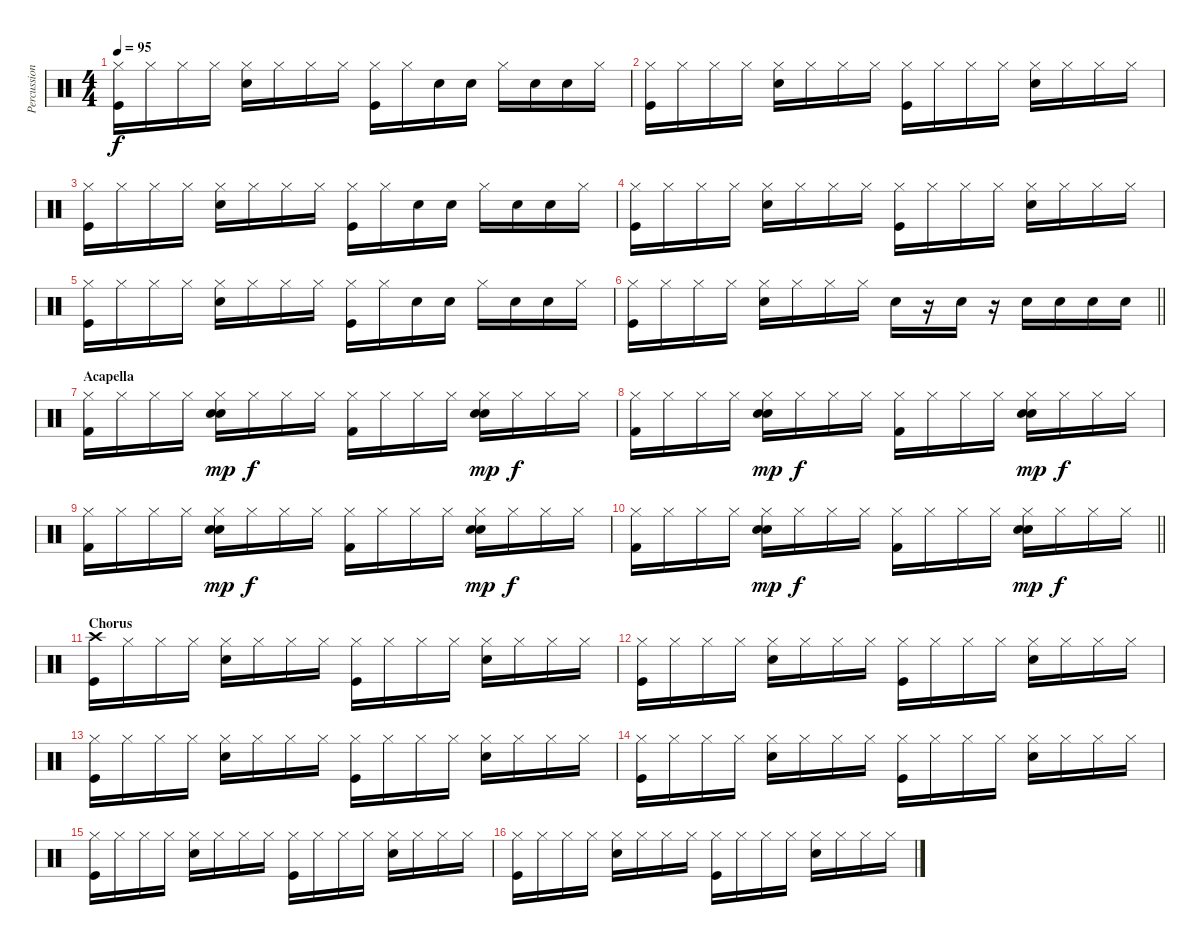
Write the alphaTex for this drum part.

\track ("Percussion" "Percussion") {instrument percussion}
\staff {score}
\articulation defaults
\ts (4 4)
\tempo 95
\clef neutral
\ks c
("Hi-Hat (closed)" "Kick (hit)").16{dy f} "Hi-Hat (closed)".16 "Hi-Hat (closed)".16 "Hi-Hat (closed)".16 ("Hi-Hat (closed)" "Snare (hit) 2").16 "Hi-Hat (closed)".16 "Hi-Hat (closed)".16 "Hi-Hat (closed)".16 ("Hi-Hat (closed)" "Kick (hit)").16 "Hi-Hat (closed)".16 "Snare (hit) 2".16 "Snare (hit) 2".16 "Hi-Hat (closed)".16 "Snare (hit) 2".16 "Snare (hit) 2".16 "Hi-Hat (closed)".16 |
("Hi-Hat (closed)" "Kick (hit)").16 "Hi-Hat (closed)".16 "Hi-Hat (closed)".16 "Hi-Hat (closed)".16 ("Hi-Hat (closed)" "Snare (hit) 2").16 "Hi-Hat (closed)".16 "Hi-Hat (closed)".16 "Hi-Hat (closed)".16 ("Hi-Hat (closed)" "Kick (hit)").16 "Hi-Hat (closed)".16 "Hi-Hat (closed)".16 "Hi-Hat (closed)".16 ("Hi-Hat (closed)" "Snare (hit) 2").16 "Hi-Hat (closed)".16 "Hi-Hat (closed)".16 "Hi-Hat (closed)".16 |
("Hi-Hat (closed)" "Kick (hit)").16 "Hi-Hat (closed)".16 "Hi-Hat (closed)".16 "Hi-Hat (closed)".16 ("Hi-Hat (closed)" "Snare (hit) 2").16 "Hi-Hat (closed)".16 "Hi-Hat (closed)".16 "Hi-Hat (closed)".16 ("Hi-Hat (closed)" "Kick (hit)").16 "Hi-Hat (closed)".16 "Snare (hit) 2".16 "Snare (hit) 2".16 "Hi-Hat (closed)".16 "Snare (hit) 2".16 "Snare (hit) 2".16 "Hi-Hat (closed)".16 |
("Hi-Hat (closed)" "Kick (hit)").16 "Hi-Hat (closed)".16 "Hi-Hat (closed)".16 "Hi-Hat (closed)".16 ("Hi-Hat (closed)" "Snare (hit) 2").16 "Hi-Hat (closed)".16 "Hi-Hat (closed)".16 "Hi-Hat (closed)".16 ("Hi-Hat (closed)" "Kick (hit)").16 "Hi-Hat (closed)".16 "Hi-Hat (closed)".16 "Hi-Hat (closed)".16 ("Hi-Hat (closed)" "Snare (hit) 2").16 "Hi-Hat (closed)".16 "Hi-Hat (closed)".16 "Hi-Hat (closed)".16 |
("Hi-Hat (closed)" "Kick (hit)").16 "Hi-Hat (closed)".16 "Hi-Hat (closed)".16 "Hi-Hat (closed)".16 ("Hi-Hat (closed)" "Snare (hit) 2").16 "Hi-Hat (closed)".16 "Hi-Hat (closed)".16 "Hi-Hat (closed)".16 ("Hi-Hat (closed)" "Kick (hit)").16 "Hi-Hat (closed)".16 "Snare (hit) 2".16 "Snare (hit) 2".16 "Hi-Hat (closed)".16 "Snare (hit) 2".16 "Snare (hit) 2".16 "Hi-Hat (closed)".16 |
\barLineRight lightlight
("Hi-Hat (closed)" "Kick (hit)").16 "Hi-Hat (closed)".16 "Hi-Hat (closed)".16 "Hi-Hat (closed)".16 ("Hi-Hat (closed)" "Snare (hit) 2").16 "Hi-Hat (closed)".16 "Hi-Hat (closed)".16 "Hi-Hat (closed)".16 "Snare (hit) 2".16 r.16 "Snare (hit) 2".16 r.16 "Snare (hit) 2".16 "Snare (hit) 2".16 "Snare (hit) 2".16 "Snare (hit) 2".16 |
\section ("" "Acapella")
("Hi-Hat (closed)" "Kick (hit) 2").16 "Hi-Hat (closed)".16 "Hi-Hat (closed)".16 "Hi-Hat (closed)".16 ("Hi-Hat (closed)" "Snare (hit) 2" "Hand Clap (hit)").16{dy mp} "Hi-Hat (closed)".16{dy f} "Hi-Hat (closed)".16 "Hi-Hat (closed)".16 ("Hi-Hat (closed)" "Kick (hit) 2").16 "Hi-Hat (closed)".16 "Hi-Hat (closed)".16 "Hi-Hat (closed)".16 ("Hi-Hat (closed)" "Snare (hit) 2" "Hand Clap (hit)").16{dy mp} "Hi-Hat (closed)".16{dy f} "Hi-Hat (closed)".16 "Hi-Hat (closed)".16 |
("Hi-Hat (closed)" "Kick (hit) 2").16 "Hi-Hat (closed)".16 "Hi-Hat (closed)".16 "Hi-Hat (closed)".16 ("Hi-Hat (closed)" "Snare (hit) 2" "Hand Clap (hit)").16{dy mp} "Hi-Hat (closed)".16{dy f} "Hi-Hat (closed)".16 "Hi-Hat (closed)".16 ("Hi-Hat (closed)" "Kick (hit) 2").16 "Hi-Hat (closed)".16 "Hi-Hat (closed)".16 "Hi-Hat (closed)".16 ("Hi-Hat (closed)" "Snare (hit) 2" "Hand Clap (hit)").16{dy mp} "Hi-Hat (closed)".16{dy f} "Hi-Hat (closed)".16 "Hi-Hat (closed)".16 |
("Hi-Hat (closed)" "Kick (hit) 2").16 "Hi-Hat (closed)".16 "Hi-Hat (closed)".16 "Hi-Hat (closed)".16 ("Hi-Hat (closed)" "Snare (hit) 2" "Hand Clap (hit)").16{dy mp} "Hi-Hat (closed)".16{dy f} "Hi-Hat (closed)".16 "Hi-Hat (closed)".16 ("Hi-Hat (closed)" "Kick (hit) 2").16 "Hi-Hat (closed)".16 "Hi-Hat (closed)".16 "Hi-Hat (closed)".16 ("Hi-Hat (closed)" "Snare (hit) 2" "Hand Clap (hit)").16{dy mp} "Hi-Hat (closed)".16{dy f} "Hi-Hat (closed)".16 "Hi-Hat (closed)".16 |
\barLineRight lightlight
("Hi-Hat (closed)" "Kick (hit) 2").16 "Hi-Hat (closed)".16 "Hi-Hat (closed)".16 "Hi-Hat (closed)".16 ("Hi-Hat (closed)" "Snare (hit) 2" "Hand Clap (hit)").16{dy mp} "Hi-Hat (closed)".16{dy f} "Hi-Hat (closed)".16 "Hi-Hat (closed)".16 ("Hi-Hat (closed)" "Kick (hit) 2").16 "Hi-Hat (closed)".16 "Hi-Hat (closed)".16 "Hi-Hat (closed)".16 ("Hi-Hat (closed)" "Snare (hit) 2" "Hand Clap (hit)").16{dy mp} "Hi-Hat (closed)".16{dy f} "Hi-Hat (closed)".16 "Hi-Hat (closed)".16 |
\section ("" "Chorus")
("Crash high (hit)" "Kick (hit)").16 "Hi-Hat (closed)".16 "Hi-Hat (closed)".16 "Hi-Hat (closed)".16 ("Hi-Hat (closed)" "Snare (hit) 2").16 "Hi-Hat (closed)".16 "Hi-Hat (closed)".16 "Hi-Hat (closed)".16 ("Hi-Hat (closed)" "Kick (hit)").16 "Hi-Hat (closed)".16 "Hi-Hat (closed)".16 "Hi-Hat (closed)".16 ("Hi-Hat (closed)" "Snare (hit) 2").16 "Hi-Hat (closed)".16 "Hi-Hat (closed)".16 "Hi-Hat (closed)".16 |
("Hi-Hat (closed)" "Kick (hit)").16 "Hi-Hat (closed)".16 "Hi-Hat (closed)".16 "Hi-Hat (closed)".16 ("Hi-Hat (closed)" "Snare (hit) 2").16 "Hi-Hat (closed)".16 "Hi-Hat (closed)".16 "Hi-Hat (closed)".16 ("Hi-Hat (closed)" "Kick (hit)").16 "Hi-Hat (closed)".16 "Hi-Hat (closed)".16 "Hi-Hat (closed)".16 ("Hi-Hat (closed)" "Snare (hit) 2").16 "Hi-Hat (closed)".16 "Hi-Hat (closed)".16 "Hi-Hat (closed)".16 |
("Hi-Hat (closed)" "Kick (hit)").16 "Hi-Hat (closed)".16 "Hi-Hat (closed)".16 "Hi-Hat (closed)".16 ("Hi-Hat (closed)" "Snare (hit) 2").16 "Hi-Hat (closed)".16 "Hi-Hat (closed)".16 "Hi-Hat (closed)".16 ("Hi-Hat (closed)" "Kick (hit)").16 "Hi-Hat (closed)".16 "Hi-Hat (closed)".16 "Hi-Hat (closed)".16 ("Hi-Hat (closed)" "Snare (hit) 2").16 "Hi-Hat (closed)".16 "Hi-Hat (closed)".16 "Hi-Hat (closed)".16 |
("Hi-Hat (closed)" "Kick (hit)").16 "Hi-Hat (closed)".16 "Hi-Hat (closed)".16 "Hi-Hat (closed)".16 ("Hi-Hat (closed)" "Snare (hit) 2").16 "Hi-Hat (closed)".16 "Hi-Hat (closed)".16 "Hi-Hat (closed)".16 ("Hi-Hat (closed)" "Kick (hit)").16 "Hi-Hat (closed)".16 "Hi-Hat (closed)".16 "Hi-Hat (closed)".16 ("Hi-Hat (closed)" "Snare (hit) 2").16 "Hi-Hat (closed)".16 "Hi-Hat (closed)".16 "Hi-Hat (closed)".16 |
("Hi-Hat (closed)" "Kick (hit)").16 "Hi-Hat (closed)".16 "Hi-Hat (closed)".16 "Hi-Hat (closed)".16 ("Hi-Hat (closed)" "Snare (hit) 2").16 "Hi-Hat (closed)".16 "Hi-Hat (closed)".16 "Hi-Hat (closed)".16 ("Hi-Hat (closed)" "Kick (hit)").16 "Hi-Hat (closed)".16 "Hi-Hat (closed)".16 "Hi-Hat (closed)".16 ("Hi-Hat (closed)" "Snare (hit) 2").16 "Hi-Hat (closed)".16 "Hi-Hat (closed)".16 "Hi-Hat (closed)".16 |
("Hi-Hat (closed)" "Kick (hit)").16 "Hi-Hat (closed)".16 "Hi-Hat (closed)".16 "Hi-Hat (closed)".16 ("Hi-Hat (closed)" "Snare (hit) 2").16 "Hi-Hat (closed)".16 "Hi-Hat (closed)".16 "Hi-Hat (closed)".16 ("Hi-Hat (closed)" "Kick (hit)").16 "Hi-Hat (closed)".16 "Hi-Hat (closed)".16 "Hi-Hat (closed)".16 ("Hi-Hat (closed)" "Snare (hit) 2").16 "Hi-Hat (closed)".16 "Hi-Hat (closed)".16 "Hi-Hat (closed)".16
